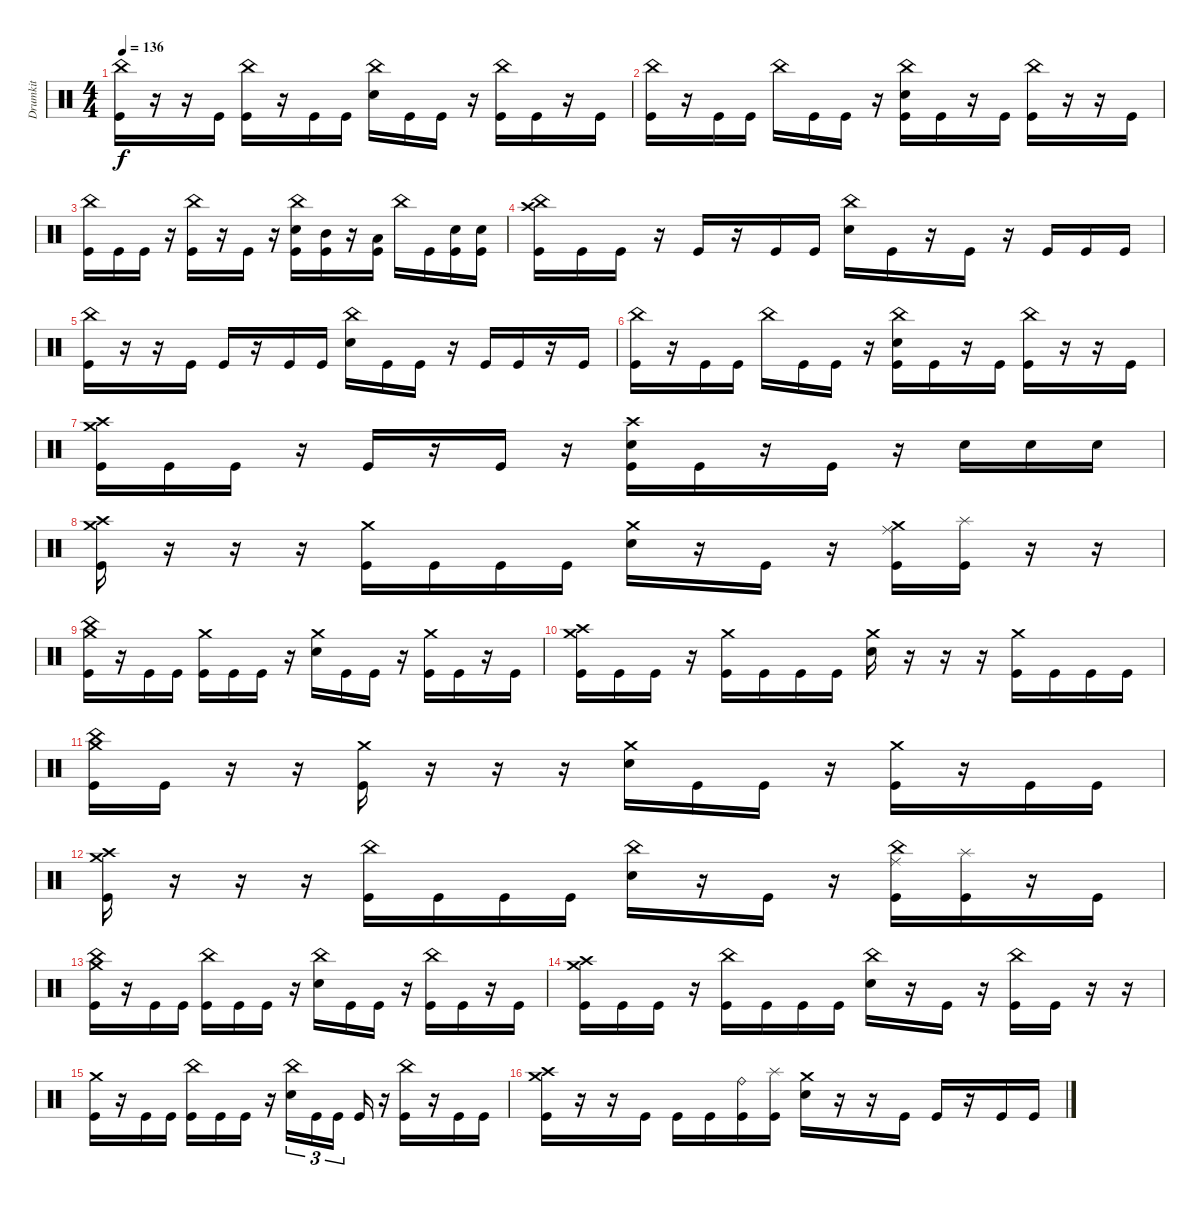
\track ("Drumkit" "Drumkit") {instrument percussion}
\staff {score}
\articulation defaults
\ts (4 4)
\tempo 136
\clef neutral
\ks c
("China (hit)" "Kick (hit)").16{dy f} r.16 r.16 "Kick (hit)".16 ("China (hit)" "Kick (hit)").16 r.16 "Kick (hit)".16 "Kick (hit)".16 ("China (hit)" "Snare (hit) 2").16 "Kick (hit)".16 "Kick (hit)".16 r.16 ("China (hit)" "Kick (hit)").16 "Kick (hit)".16 r.16 "Kick (hit)".16 |
("China (hit)" "Kick (hit)").16 r.16 "Kick (hit)".16 "Kick (hit)".16 "China (hit)".16 "Kick (hit)".16 "Kick (hit)".16 r.16 ("China (hit)" "Snare (hit) 2" "Kick (hit)").16 "Kick (hit)".16 r.16 "Kick (hit)".16 ("China (hit)" "Kick (hit)").16 r.16 r.16 "Kick (hit)".16 |
("China (hit)" "Kick (hit)").16 "Kick (hit)".16 "Kick (hit)".16 r.16 ("China (hit)" "Kick (hit)").16 r.16 "Kick (hit)".16 r.16 ("China (hit)" "Snare (hit) 2" "Kick (hit)").16 ("Mid Tom (hit)" "Kick (hit)").16 r.16 ("Low Tom (hit)" "Kick (hit)").16 "China (hit)".16 "Kick (hit)".16 ("Snare (hit) 2" "Kick (hit)").16 ("Snare (hit) 2" "Kick (hit)").16 |
("China (hit)" "Crash high (hit)" "Kick (hit)").16 "Kick (hit)".16 "Kick (hit)".16 r.16 "Kick (hit)".16 r.16 "Kick (hit)".16 "Kick (hit)".16 ("China (hit)" "Snare (hit) 2").16 "Kick (hit)".16 r.16 "Kick (hit)".16 r.16 "Kick (hit)".16 "Kick (hit)".16 "Kick (hit)".16 |
("China (hit)" "Kick (hit)").16 r.16 r.16 "Kick (hit)".16 "Kick (hit)".16 r.16 "Kick (hit)".16 "Kick (hit)".16 ("China (hit)" "Snare (hit) 2").16 "Kick (hit)".16 "Kick (hit)".16 r.16 "Kick (hit)".16 "Kick (hit)".16 r.16 "Kick (hit)".16 |
("China (hit)" "Kick (hit)").16 r.16 "Kick (hit)".16 "Kick (hit)".16 "China (hit)".16 "Kick (hit)".16 "Kick (hit)".16 r.16 ("China (hit)" "Snare (hit) 2" "Kick (hit)").16 "Kick (hit)".16 r.16 "Kick (hit)".16 ("China (hit)" "Kick (hit)").16 r.16 r.16 "Kick (hit)".16 |
("Crash medium (hit)" "Crash high (hit)" "Kick (hit)").16 "Kick (hit)".16 "Kick (hit)".16 r.16 "Kick (hit)".16 r.16 "Kick (hit)".16 r.16 ("Crash high (hit)" "Snare (hit) 2" "Kick (hit)").16 "Kick (hit)".16 r.16 "Kick (hit)".16 r.16 "Snare (hit) 2".16 "Snare (hit) 2".16 "Snare (hit) 2".16 |
("Crash medium (hit)" "Crash high (hit)" "Kick (hit)").16 r.16 r.16 r.16 ("Crash medium (hit)" "Kick (hit)").16 "Kick (hit)".16 "Kick (hit)".16 "Kick (hit)".16 ("Crash medium (hit)" "Snare (hit) 2").16 r.16 "Kick (hit)".16 r.16 ("Crash medium (hit)" "Ride (middle)" "Kick (hit)").16 ("Splash (hit)" "Kick (hit)").16 r.16 r.16 |
("Crash medium (hit)" "China (hit)" "Kick (hit)").16 r.16 "Kick (hit)".16 "Kick (hit)".16 ("Crash medium (hit)" "Kick (hit)").16 "Kick (hit)".16 "Kick (hit)".16 r.16 ("Crash medium (hit)" "Snare (hit) 2").16 "Kick (hit)".16 "Kick (hit)".16 r.16 ("Crash medium (hit)" "Kick (hit)").16 "Kick (hit)".16 r.16 "Kick (hit)".16 |
("Crash medium (hit)" "Crash high (hit)" "Kick (hit)").16 "Kick (hit)".16 "Kick (hit)".16 r.16 ("Crash medium (hit)" "Kick (hit)").16 "Kick (hit)".16 "Kick (hit)".16 "Kick (hit)".16 ("Crash medium (hit)" "Snare (hit) 2").16 r.16 r.16 r.16 ("Crash medium (hit)" "Kick (hit)").16 "Kick (hit)".16 "Kick (hit)".16 "Kick (hit)".16 |
("Crash medium (hit)" "China (hit)" "Kick (hit)").16 "Kick (hit)".16 r.16 r.16 ("Crash medium (hit)" "Kick (hit)").16 r.16 r.16 r.16 ("Crash medium (hit)" "Snare (hit) 2").16 "Kick (hit)".16 "Kick (hit)".16 r.16 ("Crash medium (hit)" "Kick (hit)").16 r.16 "Kick (hit)".16 "Kick (hit)".16 |
("Crash medium (hit)" "Crash high (hit)" "Kick (hit)").16 r.16 r.16 r.16 ("China (hit)" "Kick (hit)").16 "Kick (hit)".16 "Kick (hit)".16 "Kick (hit)".16 ("China (hit)" "Snare (hit) 2").16 r.16 "Kick (hit)".16 r.16 ("China (hit)" "Ride (middle)" "Kick (hit)").16 ("Splash (hit)" "Kick (hit)").16 r.16 "Kick (hit)".16 |
("Crash medium (hit)" "China (hit)" "Kick (hit)").16 r.16 "Kick (hit)".16 "Kick (hit)".16 ("China (hit)" "Kick (hit)").16 "Kick (hit)".16 "Kick (hit)".16 r.16 ("China (hit)" "Snare (hit) 2").16 "Kick (hit)".16 "Kick (hit)".16 r.16 ("China (hit)" "Kick (hit)").16 "Kick (hit)".16 r.16 "Kick (hit)".16 |
("Crash medium (hit)" "Crash high (hit)" "Kick (hit)").16 "Kick (hit)".16 "Kick (hit)".16 r.16 ("China (hit)" "Kick (hit)").16 "Kick (hit)".16 "Kick (hit)".16 "Kick (hit)".16 ("China (hit)" "Snare (hit) 2").16 r.16 "Kick (hit)".16 r.16 ("China (hit)" "Kick (hit)").16 "Kick (hit)".16 r.16 r.16 |
("Crash medium (hit)" "Kick (hit)").16 r.16 "Kick (hit)".16 "Kick (hit)".16 ("China (hit)" "Kick (hit)").16 "Kick (hit)".16 "Kick (hit)".16 r.16 ("China (hit)" "Snare (hit) 2").16{tu (3 2)} "Kick (hit)".16{tu (3 2)} "Kick (hit)".16{tu (3 2)} "Kick (hit)".16 r.16 ("China (hit)" "Kick (hit)").16 r.16 "Kick (hit)".16 "Kick (hit)".16 |
("Crash medium (hit)" "Crash high (hit)" "Kick (hit)").16 r.16 r.16 "Kick (hit)".16 "Kick (hit)".16 "Kick (hit)".16 ("Ride (bell)" "Kick (hit)").16 ("Splash (hit)" "Kick (hit)").16 ("Crash medium (hit)" "Snare (hit) 2").16 r.16 r.16 "Kick (hit)".16 "Kick (hit)".16 r.16 "Kick (hit)".16 "Kick (hit)".16
